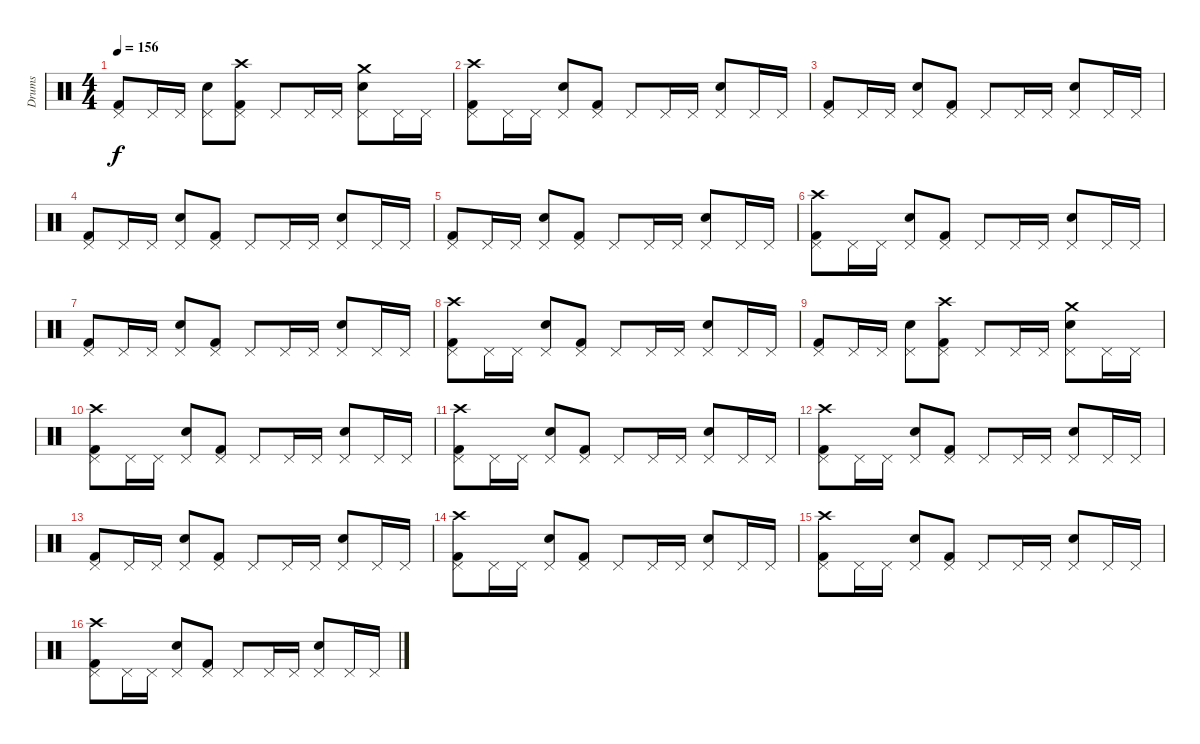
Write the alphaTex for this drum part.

\track ("Drums" "Drums") {instrument percussion}
\staff {score}
\articulation defaults
\ts (4 4)
\tempo 156
\clef neutral
\ks c
("Kick (hit) 2" "Pedal Hi-Hat (hit)").8{dy f} "Pedal Hi-Hat (hit)".16 "Pedal Hi-Hat (hit)".16 ("Snare (hit) 2" "Pedal Hi-Hat (hit)").8 ("Kick (hit) 2" "Pedal Hi-Hat (hit)" "Crash high (hit)").8 "Pedal Hi-Hat (hit)".8 "Pedal Hi-Hat (hit)".16 "Pedal Hi-Hat (hit)".16 ("Snare (hit) 2" "Pedal Hi-Hat (hit)" "Crash medium (hit)").8 "Pedal Hi-Hat (hit)".16 "Pedal Hi-Hat (hit)".16 |
("Kick (hit) 2" "Pedal Hi-Hat (hit)" "Crash high (hit)").8 "Pedal Hi-Hat (hit)".16 "Pedal Hi-Hat (hit)".16 ("Snare (hit) 2" "Pedal Hi-Hat (hit)").8 ("Kick (hit) 2" "Pedal Hi-Hat (hit)").8 "Pedal Hi-Hat (hit)".8 "Pedal Hi-Hat (hit)".16 "Pedal Hi-Hat (hit)".16 ("Snare (hit) 2" "Pedal Hi-Hat (hit)").8 "Pedal Hi-Hat (hit)".16 "Pedal Hi-Hat (hit)".16 |
("Kick (hit) 2" "Pedal Hi-Hat (hit)").8 "Pedal Hi-Hat (hit)".16 "Pedal Hi-Hat (hit)".16 ("Snare (hit) 2" "Pedal Hi-Hat (hit)").8 ("Kick (hit) 2" "Pedal Hi-Hat (hit)").8 "Pedal Hi-Hat (hit)".8 "Pedal Hi-Hat (hit)".16 "Pedal Hi-Hat (hit)".16 ("Snare (hit) 2" "Pedal Hi-Hat (hit)").8 "Pedal Hi-Hat (hit)".16 "Pedal Hi-Hat (hit)".16 |
("Kick (hit) 2" "Pedal Hi-Hat (hit)").8 "Pedal Hi-Hat (hit)".16 "Pedal Hi-Hat (hit)".16 ("Snare (hit) 2" "Pedal Hi-Hat (hit)").8 ("Kick (hit) 2" "Pedal Hi-Hat (hit)").8 "Pedal Hi-Hat (hit)".8 "Pedal Hi-Hat (hit)".16 "Pedal Hi-Hat (hit)".16 ("Snare (hit) 2" "Pedal Hi-Hat (hit)").8 "Pedal Hi-Hat (hit)".16 "Pedal Hi-Hat (hit)".16 |
("Kick (hit) 2" "Pedal Hi-Hat (hit)").8 "Pedal Hi-Hat (hit)".16 "Pedal Hi-Hat (hit)".16 ("Snare (hit) 2" "Pedal Hi-Hat (hit)").8 ("Kick (hit) 2" "Pedal Hi-Hat (hit)").8 "Pedal Hi-Hat (hit)".8 "Pedal Hi-Hat (hit)".16 "Pedal Hi-Hat (hit)".16 ("Snare (hit) 2" "Pedal Hi-Hat (hit)").8 "Pedal Hi-Hat (hit)".16 "Pedal Hi-Hat (hit)".16 |
("Kick (hit) 2" "Pedal Hi-Hat (hit)" "Crash high (hit)").8 "Pedal Hi-Hat (hit)".16 "Pedal Hi-Hat (hit)".16 ("Snare (hit) 2" "Pedal Hi-Hat (hit)").8 ("Kick (hit) 2" "Pedal Hi-Hat (hit)").8 "Pedal Hi-Hat (hit)".8 "Pedal Hi-Hat (hit)".16 "Pedal Hi-Hat (hit)".16 ("Snare (hit) 2" "Pedal Hi-Hat (hit)").8 "Pedal Hi-Hat (hit)".16 "Pedal Hi-Hat (hit)".16 |
("Kick (hit) 2" "Pedal Hi-Hat (hit)").8 "Pedal Hi-Hat (hit)".16 "Pedal Hi-Hat (hit)".16 ("Snare (hit) 2" "Pedal Hi-Hat (hit)").8 ("Kick (hit) 2" "Pedal Hi-Hat (hit)").8 "Pedal Hi-Hat (hit)".8 "Pedal Hi-Hat (hit)".16 "Pedal Hi-Hat (hit)".16 ("Snare (hit) 2" "Pedal Hi-Hat (hit)").8 "Pedal Hi-Hat (hit)".16 "Pedal Hi-Hat (hit)".16 |
("Kick (hit) 2" "Pedal Hi-Hat (hit)" "Crash high (hit)").8 "Pedal Hi-Hat (hit)".16 "Pedal Hi-Hat (hit)".16 ("Snare (hit) 2" "Pedal Hi-Hat (hit)").8 ("Kick (hit) 2" "Pedal Hi-Hat (hit)").8 "Pedal Hi-Hat (hit)".8 "Pedal Hi-Hat (hit)".16 "Pedal Hi-Hat (hit)".16 ("Snare (hit) 2" "Pedal Hi-Hat (hit)").8 "Pedal Hi-Hat (hit)".16 "Pedal Hi-Hat (hit)".16 |
("Kick (hit) 2" "Pedal Hi-Hat (hit)").8 "Pedal Hi-Hat (hit)".16 "Pedal Hi-Hat (hit)".16 ("Snare (hit) 2" "Pedal Hi-Hat (hit)").8 ("Kick (hit) 2" "Pedal Hi-Hat (hit)" "Crash high (hit)").8 "Pedal Hi-Hat (hit)".8 "Pedal Hi-Hat (hit)".16 "Pedal Hi-Hat (hit)".16 ("Snare (hit) 2" "Pedal Hi-Hat (hit)" "Crash medium (hit)").8 "Pedal Hi-Hat (hit)".16 "Pedal Hi-Hat (hit)".16 |
("Kick (hit) 2" "Pedal Hi-Hat (hit)" "Crash high (hit)").8 "Pedal Hi-Hat (hit)".16 "Pedal Hi-Hat (hit)".16 ("Snare (hit) 2" "Pedal Hi-Hat (hit)").8 ("Kick (hit) 2" "Pedal Hi-Hat (hit)").8 "Pedal Hi-Hat (hit)".8 "Pedal Hi-Hat (hit)".16 "Pedal Hi-Hat (hit)".16 ("Snare (hit) 2" "Pedal Hi-Hat (hit)").8 "Pedal Hi-Hat (hit)".16 "Pedal Hi-Hat (hit)".16 |
("Kick (hit) 2" "Pedal Hi-Hat (hit)" "Crash high (hit)").8 "Pedal Hi-Hat (hit)".16 "Pedal Hi-Hat (hit)".16 ("Snare (hit) 2" "Pedal Hi-Hat (hit)").8 ("Kick (hit) 2" "Pedal Hi-Hat (hit)").8 "Pedal Hi-Hat (hit)".8 "Pedal Hi-Hat (hit)".16 "Pedal Hi-Hat (hit)".16 ("Snare (hit) 2" "Pedal Hi-Hat (hit)").8 "Pedal Hi-Hat (hit)".16 "Pedal Hi-Hat (hit)".16 |
("Kick (hit) 2" "Pedal Hi-Hat (hit)" "Crash high (hit)").8 "Pedal Hi-Hat (hit)".16 "Pedal Hi-Hat (hit)".16 ("Snare (hit) 2" "Pedal Hi-Hat (hit)").8 ("Kick (hit) 2" "Pedal Hi-Hat (hit)").8 "Pedal Hi-Hat (hit)".8 "Pedal Hi-Hat (hit)".16 "Pedal Hi-Hat (hit)".16 ("Snare (hit) 2" "Pedal Hi-Hat (hit)").8 "Pedal Hi-Hat (hit)".16 "Pedal Hi-Hat (hit)".16 |
("Kick (hit) 2" "Pedal Hi-Hat (hit)").8 "Pedal Hi-Hat (hit)".16 "Pedal Hi-Hat (hit)".16 ("Snare (hit) 2" "Pedal Hi-Hat (hit)").8 ("Kick (hit) 2" "Pedal Hi-Hat (hit)").8 "Pedal Hi-Hat (hit)".8 "Pedal Hi-Hat (hit)".16 "Pedal Hi-Hat (hit)".16 ("Snare (hit) 2" "Pedal Hi-Hat (hit)").8 "Pedal Hi-Hat (hit)".16 "Pedal Hi-Hat (hit)".16 |
("Kick (hit) 2" "Pedal Hi-Hat (hit)" "Crash high (hit)").8 "Pedal Hi-Hat (hit)".16 "Pedal Hi-Hat (hit)".16 ("Snare (hit) 2" "Pedal Hi-Hat (hit)").8 ("Kick (hit) 2" "Pedal Hi-Hat (hit)").8 "Pedal Hi-Hat (hit)".8 "Pedal Hi-Hat (hit)".16 "Pedal Hi-Hat (hit)".16 ("Snare (hit) 2" "Pedal Hi-Hat (hit)").8 "Pedal Hi-Hat (hit)".16 "Pedal Hi-Hat (hit)".16 |
("Kick (hit) 2" "Pedal Hi-Hat (hit)" "Crash high (hit)").8 "Pedal Hi-Hat (hit)".16 "Pedal Hi-Hat (hit)".16 ("Snare (hit) 2" "Pedal Hi-Hat (hit)").8 ("Kick (hit) 2" "Pedal Hi-Hat (hit)").8 "Pedal Hi-Hat (hit)".8 "Pedal Hi-Hat (hit)".16 "Pedal Hi-Hat (hit)".16 ("Snare (hit) 2" "Pedal Hi-Hat (hit)").8 "Pedal Hi-Hat (hit)".16 "Pedal Hi-Hat (hit)".16 |
("Kick (hit) 2" "Pedal Hi-Hat (hit)" "Crash high (hit)").8 "Pedal Hi-Hat (hit)".16 "Pedal Hi-Hat (hit)".16 ("Snare (hit) 2" "Pedal Hi-Hat (hit)").8 ("Kick (hit) 2" "Pedal Hi-Hat (hit)").8 "Pedal Hi-Hat (hit)".8 "Pedal Hi-Hat (hit)".16 "Pedal Hi-Hat (hit)".16 ("Snare (hit) 2" "Pedal Hi-Hat (hit)").8 "Pedal Hi-Hat (hit)".16 "Pedal Hi-Hat (hit)".16
